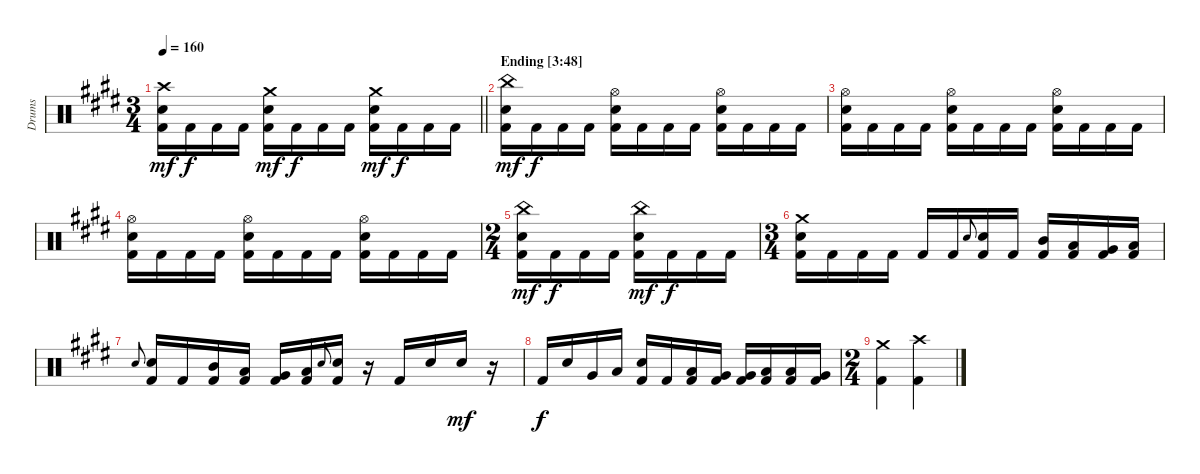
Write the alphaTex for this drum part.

\track ("Drums" "Drums") {instrument percussion}
\staff {score}
\articulation defaults
\ts (3 4)
\tempo 160
\clef neutral
\barLineRight lightlight
\ks c#minor
("Crash high (hit)" "Snare (hit) 2" "Kick (hit) 2").16{dy mf} "Kick (hit) 2".16{dy f} "Kick (hit) 2".16 "Kick (hit) 2".16 ("Crash medium (hit)" "Snare (hit) 2" "Kick (hit) 2").16{dy mf} "Kick (hit) 2".16{dy f} "Kick (hit) 2".16 "Kick (hit) 2".16 ("Crash medium (hit)" "Snare (hit) 2" "Kick (hit) 2").16{dy mf} "Kick (hit) 2".16{dy f} "Kick (hit) 2".16 "Kick (hit) 2".16 |
\section ("" "Ending [3:48]")
("China (hit)" "Snare (hit) 2" "Kick (hit) 2").16{dy mf} "Kick (hit) 2".16{dy f} "Kick (hit) 2".16 "Kick (hit) 2".16 ("Hi-Hat (open)" "Snare (hit) 2" "Kick (hit) 2").16 "Kick (hit) 2".16 "Kick (hit) 2".16 "Kick (hit) 2".16 ("Hi-Hat (open)" "Snare (hit) 2" "Kick (hit) 2").16 "Kick (hit) 2".16 "Kick (hit) 2".16 "Kick (hit) 2".16 |
("Hi-Hat (open)" "Snare (hit) 2" "Kick (hit) 2").16 "Kick (hit) 2".16 "Kick (hit) 2".16 "Kick (hit) 2".16 ("Hi-Hat (open)" "Snare (hit) 2" "Kick (hit) 2").16 "Kick (hit) 2".16 "Kick (hit) 2".16 "Kick (hit) 2".16 ("Hi-Hat (open)" "Snare (hit) 2" "Kick (hit) 2").16 "Kick (hit) 2".16 "Kick (hit) 2".16 "Kick (hit) 2".16 |
("Hi-Hat (open)" "Snare (hit) 2" "Kick (hit) 2").16 "Kick (hit) 2".16 "Kick (hit) 2".16 "Kick (hit) 2".16 ("Hi-Hat (open)" "Snare (hit) 2" "Kick (hit) 2").16 "Kick (hit) 2".16 "Kick (hit) 2".16 "Kick (hit) 2".16 ("Hi-Hat (open)" "Snare (hit) 2" "Kick (hit) 2").16 "Kick (hit) 2".16 "Kick (hit) 2".16 "Kick (hit) 2".16 |
\ts (2 4)
("China (hit)" "Snare (hit) 2" "Kick (hit) 2").16{dy mf} "Kick (hit) 2".16{dy f} "Kick (hit) 2".16 "Kick (hit) 2".16 ("China (hit)" "Snare (hit) 2" "Kick (hit) 2").16{dy mf} "Kick (hit) 2".16{dy f} "Kick (hit) 2".16 "Kick (hit) 2".16 |
\ts (3 4)
("Crash medium (hit)" "Snare (hit) 2" "Kick (hit) 2").16 "Kick (hit) 2".16 "Kick (hit) 2".16 "Kick (hit) 2".16 "Kick (hit) 2".16 "Kick (hit) 2".16 "Snare (hit) 2".8{gr onbeat} ("Snare (hit) 2" "Kick (hit) 2").16 "Kick (hit) 2".16 ("Mid Tom (hit)" "Kick (hit) 2").16 ("Low Tom (hit)" "Kick (hit) 2").16 ("Very Low Tom (hit)" "Kick (hit) 2").16 ("Low Floor Tom (hit)" "Kick (hit) 2").16 |
"Snare (hit) 2".8{gr onbeat} ("Snare (hit) 2" "Kick (hit) 2").16 "Kick (hit) 2".16 ("Mid Tom (hit)" "Kick (hit) 2").16 ("Low Tom (hit)" "Kick (hit) 2").16 ("Very Low Tom (hit)" "Kick (hit) 2").16 ("Low Floor Tom (hit)" "Kick (hit) 2").16 "Snare (hit) 2".8{gr onbeat} ("Snare (hit) 2" "Kick (hit) 2").16 r.16 "Kick (hit) 2".16 "Snare (hit) 2".16 "Snare (hit) 2".16{dy mf} r.16 |
"Kick (hit) 2".16{dy f} "Snare (hit) 2".16 "Very Low Tom (hit)".16 "Low Floor Tom (hit)".16 ("Snare (hit) 2" "Kick (hit) 2").16 "Kick (hit) 2".16 ("Low Floor Tom (hit)" "Kick (hit) 2").16 ("Very Low Tom (hit)" "Kick (hit) 2").16 ("Very Low Tom (hit)" "Kick (hit) 2").16 ("Low Floor Tom (hit)" "Kick (hit) 2").16 ("Low Floor Tom (hit)" "Kick (hit) 2").16 ("Very Low Tom (hit)" "Kick (hit) 2").16 |
\ts (2 4)
("Crash medium (hit)" "Kick (hit) 2").4 ("Crash high (hit)" "Kick (hit) 2").4
